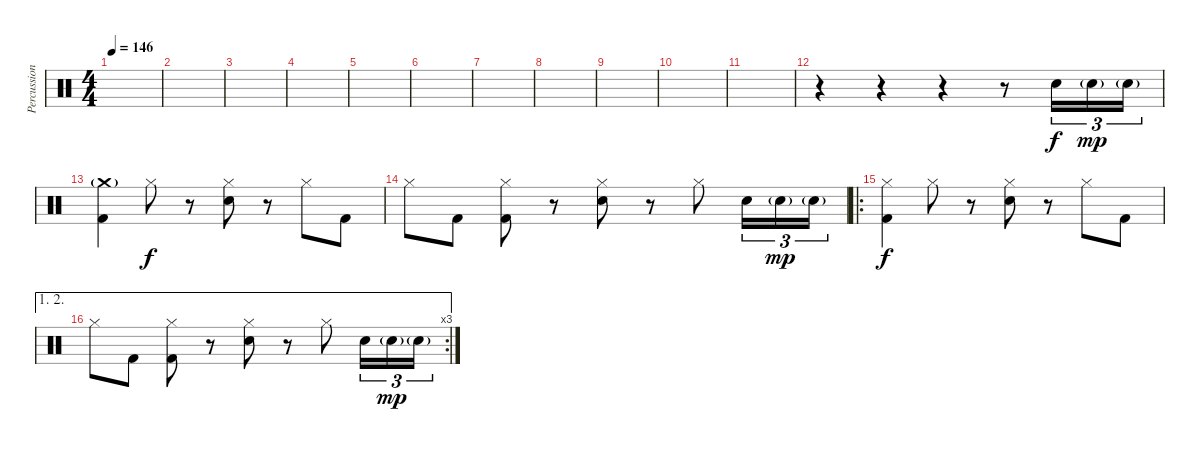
\track ("Percussion" "Percussion") {instrument percussion}
\staff {score}
\articulation defaults
\ts (4 4)
\tempo 146
\clef neutral
\ks c
|
|
|
|
|
|
|
|
|
|
|
r.4 r.4 r.4 r.8 "Electric Snare (hit)".16{tu (3 2)} "Electric Snare (hit)"{g}.16{tu (3 2) dy mp} "Electric Snare (hit)"{g}.16{tu (3 2)} |
("Crash medium (hit)"{g} "Kick (hit) 2").4 "Hi-Hat (closed)".8{dy f} r.8 ("Hi-Hat (closed)" "Electric Snare (hit)").8 r.8 "Hi-Hat (closed)".8 "Kick (hit) 2".8 |
"Hi-Hat (closed)".8 "Kick (hit) 2".8 ("Hi-Hat (closed)" "Kick (hit) 2").8 r.8 ("Hi-Hat (closed)" "Electric Snare (hit)").8 r.8 "Hi-Hat (closed)".8 "Electric Snare (hit)".16{tu (3 2)} "Electric Snare (hit)"{g}.16{tu (3 2) dy mp} "Electric Snare (hit)"{g}.16{tu (3 2)} |
\ro
("Hi-Hat (closed)" "Kick (hit) 2").4{dy f} "Hi-Hat (closed)".8 r.8 ("Hi-Hat (closed)" "Electric Snare (hit)").8 r.8 "Hi-Hat (closed)".8 "Kick (hit) 2".8 |
\ae (1 2)
\rc 3 "Hi-Hat (closed)".8 "Kick (hit) 2".8
("Hi-Hat (closed)" "Kick (hit) 2").8 r.8 ("Hi-Hat (closed)" "Electric Snare (hit)").8 r.8 "Hi-Hat (closed)".8 "Electric Snare (hit)".16{tu (3 2)} "Electric Snare (hit)"{g}.16{tu (3 2) dy mp} "Electric Snare (hit)"{g}.16{tu (3 2)}
